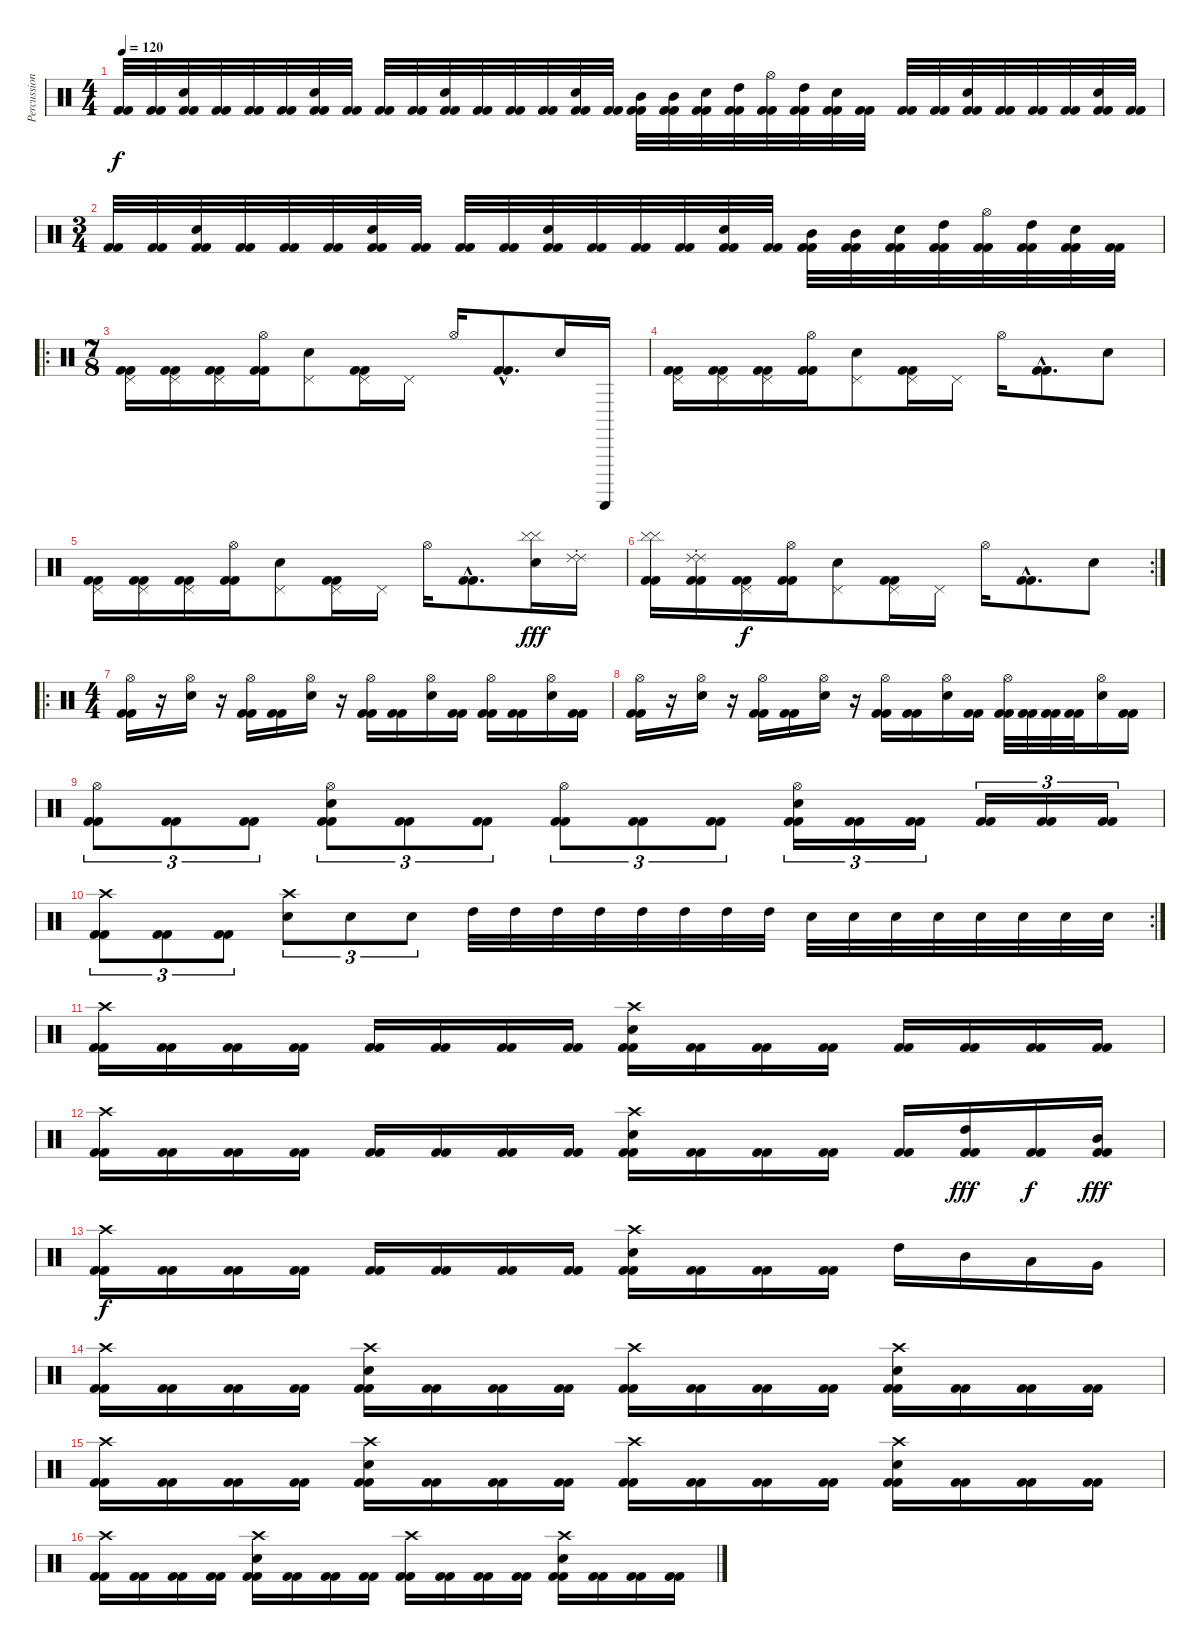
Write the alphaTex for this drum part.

\track ("Percussions" "Percussion") {instrument percussion}
\staff {score}
\articulation defaults
\ts (4 4)
\tempo 120
\clef neutral
\ks c
("Kick (hit) 2" "Kick (hit) 2").32{dy f} ("Kick (hit) 2" "Kick (hit) 2").32 ("Kick (hit) 2" "Kick (hit) 2" "Electric Snare (hit)").32 ("Kick (hit) 2" "Kick (hit) 2").32 ("Kick (hit) 2" "Kick (hit) 2").32 ("Kick (hit) 2" "Kick (hit) 2").32 ("Kick (hit) 2" "Kick (hit) 2" "Electric Snare (hit)").32 ("Kick (hit) 2" "Kick (hit) 2").32 ("Kick (hit) 2" "Kick (hit) 2").32 ("Kick (hit) 2" "Kick (hit) 2").32 ("Kick (hit) 2" "Kick (hit) 2" "Electric Snare (hit)").32 ("Kick (hit) 2" "Kick (hit) 2").32 ("Kick (hit) 2" "Kick (hit) 2").32 ("Kick (hit) 2" "Kick (hit) 2").32 ("Kick (hit) 2" "Kick (hit) 2" "Electric Snare (hit)").32 ("Kick (hit) 2" "Kick (hit) 2").32 ("Kick (hit) 2" "Kick (hit) 2" "Mid Tom (hit)").32 ("Kick (hit) 2" "Kick (hit) 2" "Mid Tom (hit)").32 ("Kick (hit) 2" "Kick (hit) 2" "Electric Snare (hit)").32 ("Kick (hit) 2" "Kick (hit) 2" "High Tom (hit)").32 ("Kick (hit) 2" "Kick (hit) 2" "Hi-Hat (open)").32 ("Kick (hit) 2" "Kick (hit) 2" "High Tom (hit)").32 ("Kick (hit) 2" "Kick (hit) 2" "Electric Snare (hit)").32 ("Kick (hit) 2" "Kick (hit) 2").32 ("Kick (hit) 2" "Kick (hit) 2").32 ("Kick (hit) 2" "Kick (hit) 2").32 ("Kick (hit) 2" "Kick (hit) 2" "Electric Snare (hit)").32 ("Kick (hit) 2" "Kick (hit) 2").32 ("Kick (hit) 2" "Kick (hit) 2").32 ("Kick (hit) 2" "Kick (hit) 2").32 ("Kick (hit) 2" "Kick (hit) 2" "Electric Snare (hit)").32 ("Kick (hit) 2" "Kick (hit) 2").32 |
\ts (3 4)
("Kick (hit) 2" "Kick (hit) 2").32 ("Kick (hit) 2" "Kick (hit) 2").32 ("Kick (hit) 2" "Kick (hit) 2" "Electric Snare (hit)").32 ("Kick (hit) 2" "Kick (hit) 2").32 ("Kick (hit) 2" "Kick (hit) 2").32 ("Kick (hit) 2" "Kick (hit) 2").32 ("Kick (hit) 2" "Kick (hit) 2" "Electric Snare (hit)").32 ("Kick (hit) 2" "Kick (hit) 2").32 ("Kick (hit) 2" "Kick (hit) 2").32 ("Kick (hit) 2" "Kick (hit) 2").32 ("Kick (hit) 2" "Kick (hit) 2" "Electric Snare (hit)").32 ("Kick (hit) 2" "Kick (hit) 2").32 ("Kick (hit) 2" "Kick (hit) 2").32 ("Kick (hit) 2" "Kick (hit) 2").32 ("Kick (hit) 2" "Kick (hit) 2" "Electric Snare (hit)").32 ("Kick (hit) 2" "Kick (hit) 2").32 ("Kick (hit) 2" "Kick (hit) 2" "Mid Tom (hit)").32 ("Kick (hit) 2" "Kick (hit) 2" "Mid Tom (hit)").32 ("Kick (hit) 2" "Kick (hit) 2" "Electric Snare (hit)").32 ("Kick (hit) 2" "Kick (hit) 2" "High Tom (hit)").32 ("Kick (hit) 2" "Kick (hit) 2" "Hi-Hat (open)").32 ("Kick (hit) 2" "Kick (hit) 2" "High Tom (hit)").32 ("Kick (hit) 2" "Kick (hit) 2" "Electric Snare (hit)").32 ("Kick (hit) 2" "Kick (hit) 2").32 |
\ro
\ts (7 8)
("Kick (hit) 2" "Kick (hit) 2" "Pedal Hi-Hat (hit)").16 ("Kick (hit) 2" "Kick (hit) 2" "Pedal Hi-Hat (hit)").16 ("Kick (hit) 2" "Kick (hit) 2" "Pedal Hi-Hat (hit)").16 ("Kick (hit) 2" "Kick (hit) 2" "Hi-Hat (open)").16 ("Electric Snare (hit)" "Pedal Hi-Hat (hit)").8 ("Kick (hit) 2" "Kick (hit) 2" "Pedal Hi-Hat (hit)").16 "Pedal Hi-Hat (hit)".16 "Hi-Hat (open)".16 ("Kick (hit) 2"{hac} "Kick (hit) 2"{hac}).8{d} "Electric Snare (hit)".16 "Guiro (scrap-return)".16 |
("Kick (hit) 2" "Kick (hit) 2" "Pedal Hi-Hat (hit)").16 ("Kick (hit) 2" "Kick (hit) 2" "Pedal Hi-Hat (hit)").16 ("Kick (hit) 2" "Kick (hit) 2" "Pedal Hi-Hat (hit)").16 ("Kick (hit) 2" "Kick (hit) 2" "Hi-Hat (open)").16 ("Electric Snare (hit)" "Pedal Hi-Hat (hit)").8 ("Kick (hit) 2" "Kick (hit) 2" "Pedal Hi-Hat (hit)").16 "Pedal Hi-Hat (hit)".16 "Hi-Hat (open)".16 ("Kick (hit) 2"{hac} "Kick (hit) 2"{hac}).8{d} "Electric Snare (hit)".8 |
("Kick (hit) 2" "Kick (hit) 2" "Pedal Hi-Hat (hit)").16 ("Kick (hit) 2" "Kick (hit) 2" "Pedal Hi-Hat (hit)").16 ("Kick (hit) 2" "Kick (hit) 2" "Pedal Hi-Hat (hit)").16 ("Kick (hit) 2" "Kick (hit) 2" "Hi-Hat (open)").16 ("Electric Snare (hit)" "Pedal Hi-Hat (hit)").8 ("Kick (hit) 2" "Kick (hit) 2" "Pedal Hi-Hat (hit)").16 "Pedal Hi-Hat (hit)".16 "Hi-Hat (open)".16 ("Kick (hit) 2"{hac} "Kick (hit) 2"{hac}).8{d} ("Electric Snare (hit)" "Cymbal (hit)" "Cymbal (hit)").16{dy fff} ("Ride (choke) 2" "Ride (choke) 2").16 |
\rc 2
("Kick (hit) 2" "Kick (hit) 2" "Cymbal (hit)" "Cymbal (hit)").16 ("Kick (hit) 2" "Kick (hit) 2" "Ride (choke) 2" "Ride (choke) 2").16 ("Kick (hit) 2" "Kick (hit) 2" "Pedal Hi-Hat (hit)").16{dy f} ("Kick (hit) 2" "Kick (hit) 2" "Hi-Hat (open)").16 ("Electric Snare (hit)" "Pedal Hi-Hat (hit)").8 ("Kick (hit) 2" "Kick (hit) 2" "Pedal Hi-Hat (hit)").16 "Pedal Hi-Hat (hit)".16 "Hi-Hat (open)".16 ("Kick (hit) 2"{hac} "Kick (hit) 2"{hac}).8{d} "Electric Snare (hit)".8 |
\ro
\ts (4 4)
("Kick (hit) 2" "Kick (hit) 2" "Hi-Hat (open)").16 r.16 ("Electric Snare (hit)" "Hi-Hat (open)").16 r.16 ("Kick (hit) 2" "Kick (hit) 2" "Hi-Hat (open)").16 ("Kick (hit) 2" "Kick (hit) 2").16 ("Electric Snare (hit)" "Hi-Hat (open)").16 r.16 ("Kick (hit) 2" "Kick (hit) 2" "Hi-Hat (open)").16 ("Kick (hit) 2" "Kick (hit) 2").16 ("Electric Snare (hit)" "Hi-Hat (open)").16 ("Kick (hit) 2" "Kick (hit) 2").16 ("Kick (hit) 2" "Kick (hit) 2" "Hi-Hat (open)").16 ("Kick (hit) 2" "Kick (hit) 2").16 ("Electric Snare (hit)" "Hi-Hat (open)").16 ("Kick (hit) 2" "Kick (hit) 2").16 |
("Kick (hit) 2" "Kick (hit) 2" "Hi-Hat (open)").16 r.16 ("Electric Snare (hit)" "Hi-Hat (open)").16 r.16 ("Kick (hit) 2" "Kick (hit) 2" "Hi-Hat (open)").16 ("Kick (hit) 2" "Kick (hit) 2").16 ("Electric Snare (hit)" "Hi-Hat (open)").16 r.16 ("Kick (hit) 2" "Kick (hit) 2" "Hi-Hat (open)").16 ("Kick (hit) 2" "Kick (hit) 2").16 ("Electric Snare (hit)" "Hi-Hat (open)").16 ("Kick (hit) 2" "Kick (hit) 2").16 ("Kick (hit) 2" "Kick (hit) 2" "Hi-Hat (open)").32 ("Kick (hit) 2" "Kick (hit) 2").32 ("Kick (hit) 2" "Kick (hit) 2").32 ("Kick (hit) 2" "Kick (hit) 2").32 ("Electric Snare (hit)" "Hi-Hat (open)").16 ("Kick (hit) 2" "Kick (hit) 2").16 |
("Kick (hit) 2" "Kick (hit) 2" "Hi-Hat (open)").8{tu (3 2)} ("Kick (hit) 2" "Kick (hit) 2").8{tu (3 2)} ("Kick (hit) 2" "Kick (hit) 2").8{tu (3 2)} ("Kick (hit) 2" "Kick (hit) 2" "Electric Snare (hit)" "Hi-Hat (open)").8{tu (3 2)} ("Kick (hit) 2" "Kick (hit) 2").8{tu (3 2)} ("Kick (hit) 2" "Kick (hit) 2").8{tu (3 2)} ("Kick (hit) 2" "Kick (hit) 2" "Hi-Hat (open)").8{tu (3 2)} ("Kick (hit) 2" "Kick (hit) 2").8{tu (3 2)} ("Kick (hit) 2" "Kick (hit) 2").8{tu (3 2)} ("Kick (hit) 2" "Kick (hit) 2" "Electric Snare (hit)" "Hi-Hat (open)").16{tu (3 2)} ("Kick (hit) 2" "Kick (hit) 2").16{tu (3 2)} ("Kick (hit) 2" "Kick (hit) 2").16{tu (3 2)} ("Kick (hit) 2" "Kick (hit) 2").16{tu (3 2)} ("Kick (hit) 2" "Kick (hit) 2").16{tu (3 2)} ("Kick (hit) 2" "Kick (hit) 2").16{tu (3 2)} |
\rc 2
("Kick (hit) 2" "Kick (hit) 2" "Crash high (hit)").8{tu (3 2)} ("Kick (hit) 2" "Kick (hit) 2").8{tu (3 2)} ("Kick (hit) 2" "Kick (hit) 2").8{tu (3 2)} ("Electric Snare (hit)" "Crash high (hit)").8{tu (3 2)} "Electric Snare (hit)".8{tu (3 2)} "Electric Snare (hit)".8{tu (3 2)} "High Tom (hit)".32 "High Tom (hit)".32 "High Tom (hit)".32 "High Tom (hit)".32 "High Tom (hit)".32 "High Tom (hit)".32 "High Tom (hit)".32 "High Tom (hit)".32 "Electric Snare (hit)".32 "Electric Snare (hit)".32 "Electric Snare (hit)".32 "Electric Snare (hit)".32 "Electric Snare (hit)".32 "Electric Snare (hit)".32 "Electric Snare (hit)".32 "Electric Snare (hit)".32 |
("Kick (hit) 2" "Kick (hit) 2" "Crash high (hit)").16 ("Kick (hit) 2" "Kick (hit) 2").16 ("Kick (hit) 2" "Kick (hit) 2").16 ("Kick (hit) 2" "Kick (hit) 2").16 ("Kick (hit) 2" "Kick (hit) 2").16 ("Kick (hit) 2" "Kick (hit) 2").16 ("Kick (hit) 2" "Kick (hit) 2").16 ("Kick (hit) 2" "Kick (hit) 2").16 ("Kick (hit) 2" "Kick (hit) 2" "Electric Snare (hit)" "Crash high (hit)").16 ("Kick (hit) 2" "Kick (hit) 2").16 ("Kick (hit) 2" "Kick (hit) 2").16 ("Kick (hit) 2" "Kick (hit) 2").16 ("Kick (hit) 2" "Kick (hit) 2").16 ("Kick (hit) 2" "Kick (hit) 2").16 ("Kick (hit) 2" "Kick (hit) 2").16 ("Kick (hit) 2" "Kick (hit) 2").16 |
("Kick (hit) 2" "Kick (hit) 2" "Crash high (hit)").16 ("Kick (hit) 2" "Kick (hit) 2").16 ("Kick (hit) 2" "Kick (hit) 2").16 ("Kick (hit) 2" "Kick (hit) 2").16 ("Kick (hit) 2" "Kick (hit) 2").16 ("Kick (hit) 2" "Kick (hit) 2").16 ("Kick (hit) 2" "Kick (hit) 2").16 ("Kick (hit) 2" "Kick (hit) 2").16 ("Kick (hit) 2" "Kick (hit) 2" "Electric Snare (hit)" "Crash high (hit)").16 ("Kick (hit) 2" "Kick (hit) 2").16 ("Kick (hit) 2" "Kick (hit) 2").16 ("Kick (hit) 2" "Kick (hit) 2").16 ("Kick (hit) 2" "Kick (hit) 2").16 ("Kick (hit) 2" "Kick (hit) 2" "High Tom (hit)").16{dy fff} ("Kick (hit) 2" "Kick (hit) 2").16{dy f} ("Kick (hit) 2" "Kick (hit) 2" "Mid Tom (hit)").16{dy fff} |
("Kick (hit) 2" "Kick (hit) 2" "Crash high (hit)").16{dy f} ("Kick (hit) 2" "Kick (hit) 2").16 ("Kick (hit) 2" "Kick (hit) 2").16 ("Kick (hit) 2" "Kick (hit) 2").16 ("Kick (hit) 2" "Kick (hit) 2").16 ("Kick (hit) 2" "Kick (hit) 2").16 ("Kick (hit) 2" "Kick (hit) 2").16 ("Kick (hit) 2" "Kick (hit) 2").16 ("Kick (hit) 2" "Kick (hit) 2" "Electric Snare (hit)" "Crash high (hit)").16 ("Kick (hit) 2" "Kick (hit) 2").16 ("Kick (hit) 2" "Kick (hit) 2").16 ("Kick (hit) 2" "Kick (hit) 2").16 "High Tom (hit)".16 "Mid Tom (hit)".16 "Low Tom (hit)".16 "Very Low Tom (hit)".16 |
("Kick (hit) 2" "Kick (hit) 2" "Crash high (hit)").16 ("Kick (hit) 2" "Kick (hit) 2").16 ("Kick (hit) 2" "Kick (hit) 2").16 ("Kick (hit) 2" "Kick (hit) 2").16 ("Kick (hit) 2" "Kick (hit) 2" "Electric Snare (hit)" "Crash high (hit)").16 ("Kick (hit) 2" "Kick (hit) 2").16 ("Kick (hit) 2" "Kick (hit) 2").16 ("Kick (hit) 2" "Kick (hit) 2").16 ("Kick (hit) 2" "Kick (hit) 2" "Crash high (hit)").16 ("Kick (hit) 2" "Kick (hit) 2").16 ("Kick (hit) 2" "Kick (hit) 2").16 ("Kick (hit) 2" "Kick (hit) 2").16 ("Kick (hit) 2" "Kick (hit) 2" "Electric Snare (hit)" "Crash high (hit)").16 ("Kick (hit) 2" "Kick (hit) 2").16 ("Kick (hit) 2" "Kick (hit) 2").16 ("Kick (hit) 2" "Kick (hit) 2").16 |
("Kick (hit) 2" "Kick (hit) 2" "Crash high (hit)").16 ("Kick (hit) 2" "Kick (hit) 2").16 ("Kick (hit) 2" "Kick (hit) 2").16 ("Kick (hit) 2" "Kick (hit) 2").16 ("Kick (hit) 2" "Kick (hit) 2" "Electric Snare (hit)" "Crash high (hit)").16 ("Kick (hit) 2" "Kick (hit) 2").16 ("Kick (hit) 2" "Kick (hit) 2").16 ("Kick (hit) 2" "Kick (hit) 2").16 ("Kick (hit) 2" "Kick (hit) 2" "Crash high (hit)").16 ("Kick (hit) 2" "Kick (hit) 2").16 ("Kick (hit) 2" "Kick (hit) 2").16 ("Kick (hit) 2" "Kick (hit) 2").16 ("Kick (hit) 2" "Kick (hit) 2" "Electric Snare (hit)" "Crash high (hit)").16 ("Kick (hit) 2" "Kick (hit) 2").16 ("Kick (hit) 2" "Kick (hit) 2").16 ("Kick (hit) 2" "Kick (hit) 2").16 |
("Kick (hit) 2" "Kick (hit) 2" "Crash high (hit)").16 ("Kick (hit) 2" "Kick (hit) 2").16 ("Kick (hit) 2" "Kick (hit) 2").16 ("Kick (hit) 2" "Kick (hit) 2").16 ("Kick (hit) 2" "Kick (hit) 2" "Electric Snare (hit)" "Crash high (hit)").16 ("Kick (hit) 2" "Kick (hit) 2").16 ("Kick (hit) 2" "Kick (hit) 2").16 ("Kick (hit) 2" "Kick (hit) 2").16 ("Kick (hit) 2" "Kick (hit) 2" "Crash high (hit)").16 ("Kick (hit) 2" "Kick (hit) 2").16 ("Kick (hit) 2" "Kick (hit) 2").16 ("Kick (hit) 2" "Kick (hit) 2").16 ("Kick (hit) 2" "Kick (hit) 2" "Electric Snare (hit)" "Crash high (hit)").16 ("Kick (hit) 2" "Kick (hit) 2").16 ("Kick (hit) 2" "Kick (hit) 2").16 ("Kick (hit) 2" "Kick (hit) 2").16
